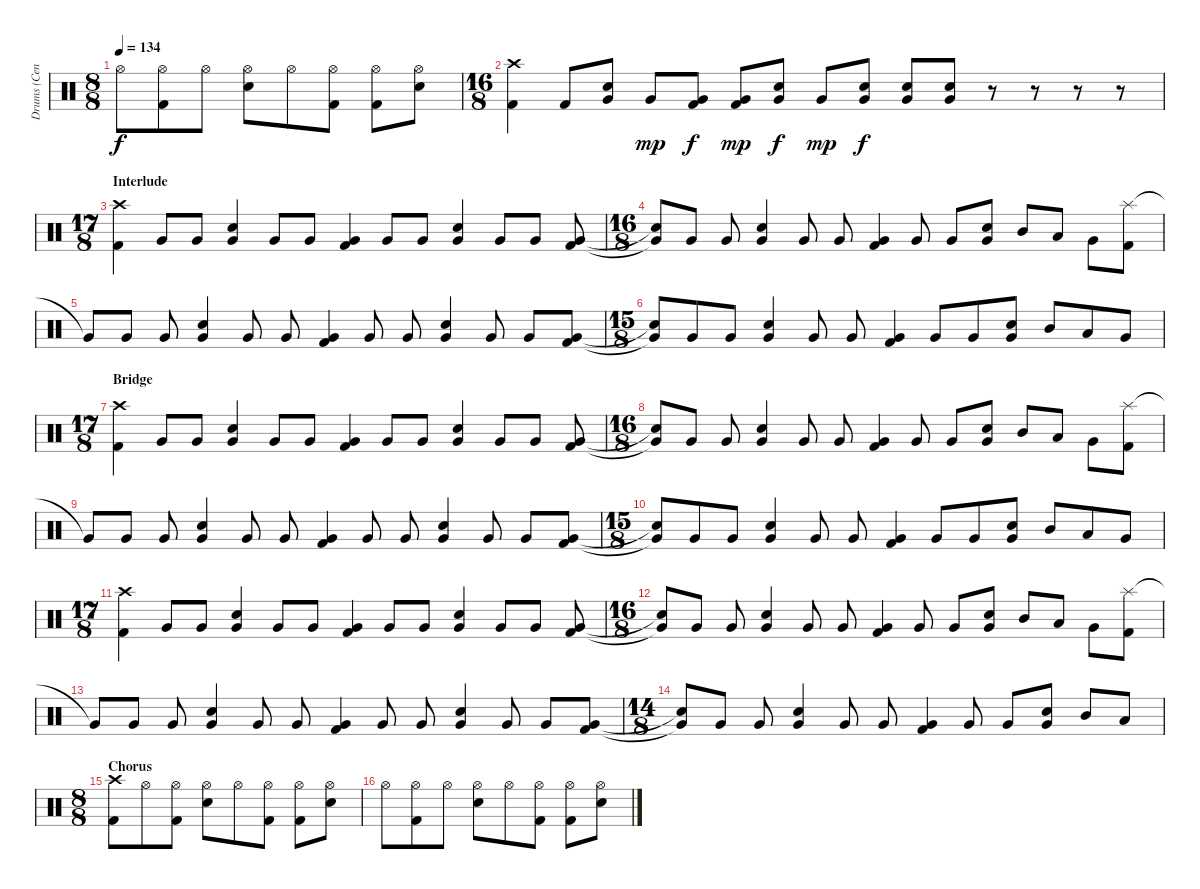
\track ("Drums (Cenk)" "Drums (Cen") {instrument percussion}
\staff {score}
\articulation defaults
\ts (8 8)
\tempo 134
\clef neutral
\ks c "Hi-Hat (open)".8{dy f}
("Hi-Hat (open)" "Kick (hit) 2").8 "Hi-Hat (open)".8 ("Hi-Hat (open)" "Snare (hit) 2").8 "Hi-Hat (open)".8 ("Hi-Hat (open)" "Kick (hit) 2").8 ("Hi-Hat (open)" "Kick (hit) 2").8 ("Hi-Hat (open)" "Snare (hit) 2").8 |
\ts (16 8)
("Crash high (hit)" "Kick (hit) 2").4 "Kick (hit) 2".8 ("Very Low Tom (hit)" "Snare (hit) 2").8 "Very Low Tom (hit)".8{dy mp} ("Very Low Tom (hit)" "Kick (hit) 2").8{dy f} ("Very Low Tom (hit)" "Kick (hit) 2").8{dy mp} ("Very Low Tom (hit)" "Snare (hit) 2").8{dy f} "Very Low Tom (hit)".8{dy mp} ("Very Low Tom (hit)" "Snare (hit) 2").8{dy f} ("Very Low Tom (hit)" "Snare (hit) 2").8 ("Very Low Tom (hit)" "Snare (hit) 2").8 r.8 r.8 r.8 r.8 |
\ts (17 8)
\section ("" "Interlude")
("Crash high (hit)" "Kick (hit) 2").4 "Very Low Tom (hit)".8 "Very Low Tom (hit)".8 ("Very Low Tom (hit)" "Snare (hit) 2").4 "Very Low Tom (hit)".8 "Very Low Tom (hit)".8 ("Very Low Tom (hit)" "Kick (hit) 2").4 "Very Low Tom (hit)".8 "Very Low Tom (hit)".8 ("Very Low Tom (hit)" "Snare (hit) 2").4 "Very Low Tom (hit)".8 "Very Low Tom (hit)".8 ("Very Low Tom (hit)" "Kick (hit) 2").8 |
\ts (16 8)
("Snare (hit)"{t} "Very Low Tom (hit)"{t}).8 "Very Low Tom (hit)".8 "Very Low Tom (hit)".8 ("Very Low Tom (hit)" "Snare (hit) 2").4 "Very Low Tom (hit)".8 "Very Low Tom (hit)".8 ("Very Low Tom (hit)" "Kick (hit) 2").4 "Very Low Tom (hit)".8 "Very Low Tom (hit)".8 ("Very Low Tom (hit)" "Snare (hit) 2").8 "Mid Tom (hit)".8 "Low Tom (hit)".8 "Very Low Tom (hit)".8 ("Splash (hit)" "Kick (hit) 2").8 |
"Very Low Tom (hit)"{t}.8 "Very Low Tom (hit)".8 "Very Low Tom (hit)".8 ("Very Low Tom (hit)" "Snare (hit) 2").4 "Very Low Tom (hit)".8 "Very Low Tom (hit)".8 ("Very Low Tom (hit)" "Kick (hit) 2").4 "Very Low Tom (hit)".8 "Very Low Tom (hit)".8 ("Very Low Tom (hit)" "Snare (hit) 2").4 "Very Low Tom (hit)".8 "Very Low Tom (hit)".8 ("Very Low Tom (hit)" "Kick (hit) 2").8 |
\ts (15 8)
("Snare (hit)"{t} "Very Low Tom (hit)"{t}).8 "Very Low Tom (hit)".8 "Very Low Tom (hit)".8 ("Very Low Tom (hit)" "Snare (hit) 2").4 "Very Low Tom (hit)".8 "Very Low Tom (hit)".8 ("Very Low Tom (hit)" "Kick (hit) 2").4 "Very Low Tom (hit)".8 "Very Low Tom (hit)".8 ("Very Low Tom (hit)" "Snare (hit) 2").8 "Mid Tom (hit)".8 "Low Tom (hit)".8 "Very Low Tom (hit)".8 |
\ts (17 8)
\section ("" "Bridge")
("Crash high (hit)" "Kick (hit) 2").4 "Very Low Tom (hit)".8 "Very Low Tom (hit)".8 ("Very Low Tom (hit)" "Snare (hit) 2").4 "Very Low Tom (hit)".8 "Very Low Tom (hit)".8 ("Very Low Tom (hit)" "Kick (hit) 2").4 "Very Low Tom (hit)".8 "Very Low Tom (hit)".8 ("Very Low Tom (hit)" "Snare (hit) 2").4 "Very Low Tom (hit)".8 "Very Low Tom (hit)".8 ("Very Low Tom (hit)" "Kick (hit) 2").8 |
\ts (16 8)
("Snare (hit)"{t} "Very Low Tom (hit)"{t}).8 "Very Low Tom (hit)".8 "Very Low Tom (hit)".8 ("Very Low Tom (hit)" "Snare (hit) 2").4 "Very Low Tom (hit)".8 "Very Low Tom (hit)".8 ("Very Low Tom (hit)" "Kick (hit) 2").4 "Very Low Tom (hit)".8 "Very Low Tom (hit)".8 ("Very Low Tom (hit)" "Snare (hit) 2").8 "Mid Tom (hit)".8 "Low Tom (hit)".8 "Very Low Tom (hit)".8 ("Splash (hit)" "Kick (hit) 2").8 |
"Very Low Tom (hit)"{t}.8 "Very Low Tom (hit)".8 "Very Low Tom (hit)".8 ("Very Low Tom (hit)" "Snare (hit) 2").4 "Very Low Tom (hit)".8 "Very Low Tom (hit)".8 ("Very Low Tom (hit)" "Kick (hit) 2").4 "Very Low Tom (hit)".8 "Very Low Tom (hit)".8 ("Very Low Tom (hit)" "Snare (hit) 2").4 "Very Low Tom (hit)".8 "Very Low Tom (hit)".8 ("Very Low Tom (hit)" "Kick (hit) 2").8 |
\ts (15 8)
("Snare (hit)"{t} "Very Low Tom (hit)"{t}).8 "Very Low Tom (hit)".8 "Very Low Tom (hit)".8 ("Very Low Tom (hit)" "Snare (hit) 2").4 "Very Low Tom (hit)".8 "Very Low Tom (hit)".8 ("Very Low Tom (hit)" "Kick (hit) 2").4 "Very Low Tom (hit)".8 "Very Low Tom (hit)".8 ("Very Low Tom (hit)" "Snare (hit) 2").8 "Mid Tom (hit)".8 "Low Tom (hit)".8 "Very Low Tom (hit)".8 |
\ts (17 8)
("Crash high (hit)" "Kick (hit) 2").4 "Very Low Tom (hit)".8 "Very Low Tom (hit)".8 ("Very Low Tom (hit)" "Snare (hit) 2").4 "Very Low Tom (hit)".8 "Very Low Tom (hit)".8 ("Very Low Tom (hit)" "Kick (hit) 2").4 "Very Low Tom (hit)".8 "Very Low Tom (hit)".8 ("Very Low Tom (hit)" "Snare (hit) 2").4 "Very Low Tom (hit)".8 "Very Low Tom (hit)".8 ("Very Low Tom (hit)" "Kick (hit) 2").8 |
\ts (16 8)
("Snare (hit)"{t} "Very Low Tom (hit)"{t}).8 "Very Low Tom (hit)".8 "Very Low Tom (hit)".8 ("Very Low Tom (hit)" "Snare (hit) 2").4 "Very Low Tom (hit)".8 "Very Low Tom (hit)".8 ("Very Low Tom (hit)" "Kick (hit) 2").4 "Very Low Tom (hit)".8 "Very Low Tom (hit)".8 ("Very Low Tom (hit)" "Snare (hit) 2").8 "Mid Tom (hit)".8 "Low Tom (hit)".8 "Very Low Tom (hit)".8 ("Splash (hit)" "Kick (hit) 2").8 |
"Very Low Tom (hit)"{t}.8 "Very Low Tom (hit)".8 "Very Low Tom (hit)".8 ("Very Low Tom (hit)" "Snare (hit) 2").4 "Very Low Tom (hit)".8 "Very Low Tom (hit)".8 ("Very Low Tom (hit)" "Kick (hit) 2").4 "Very Low Tom (hit)".8 "Very Low Tom (hit)".8 ("Very Low Tom (hit)" "Snare (hit) 2").4 "Very Low Tom (hit)".8 "Very Low Tom (hit)".8 ("Very Low Tom (hit)" "Kick (hit) 2").8 |
\ts (14 8)
("Snare (hit)"{t} "Very Low Tom (hit)"{t}).8 "Very Low Tom (hit)".8 "Very Low Tom (hit)".8 ("Very Low Tom (hit)" "Snare (hit) 2").4 "Very Low Tom (hit)".8 "Very Low Tom (hit)".8 ("Very Low Tom (hit)" "Kick (hit) 2").4 "Very Low Tom (hit)".8 "Very Low Tom (hit)".8 ("Very Low Tom (hit)" "Snare (hit) 2").8 "Mid Tom (hit)".8 "Low Tom (hit)".8 |
\ts (8 8)
\section ("" "Chorus")
("Crash high (hit)" "Kick (hit) 2").8 "Hi-Hat (open)".8 ("Hi-Hat (open)" "Kick (hit) 2").8 ("Hi-Hat (open)" "Snare (hit) 2").8 "Hi-Hat (open)".8 ("Hi-Hat (open)" "Kick (hit) 2").8 ("Hi-Hat (open)" "Kick (hit) 2").8 ("Hi-Hat (open)" "Snare (hit) 2").8 |
"Hi-Hat (open)".8 ("Hi-Hat (open)" "Kick (hit) 2").8 "Hi-Hat (open)".8 ("Hi-Hat (open)" "Snare (hit) 2").8 "Hi-Hat (open)".8 ("Hi-Hat (open)" "Kick (hit) 2").8 ("Hi-Hat (open)" "Kick (hit) 2").8 ("Hi-Hat (open)" "Snare (hit) 2").8
